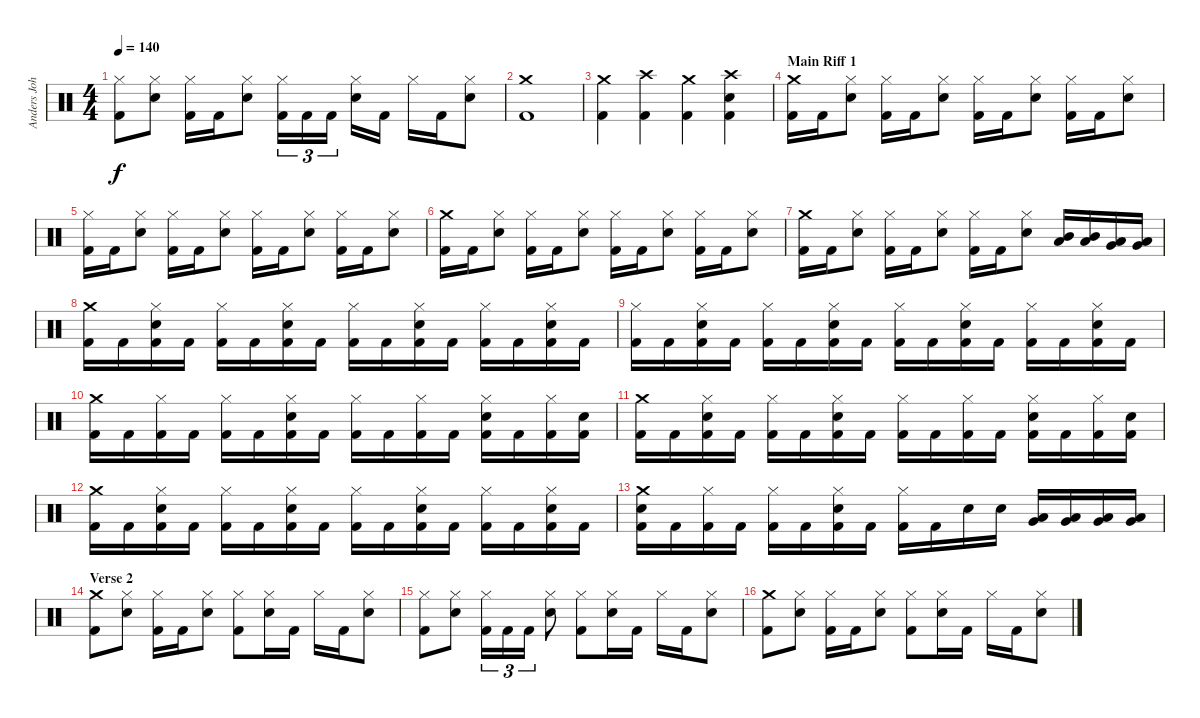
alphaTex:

\track ("Anders Johansson :: Drums" "Anders Joh") {instrument percussion}
\staff {score}
\articulation defaults
\ts (4 4)
\tempo 140
\clef neutral
\ks c
("Hi-Hat (closed)" "Kick (hit) 2").8{dy f} ("Hi-Hat (closed)" "Snare (hit) 2").8 ("Hi-Hat (closed)" "Kick (hit) 2").16 "Kick (hit) 2".16 ("Hi-Hat (closed)" "Snare (hit) 2").8 ("Hi-Hat (closed)" "Kick (hit) 2").16{tu (3 2)} "Kick (hit) 2".16{tu (3 2)} "Kick (hit) 2".16{tu (3 2)} ("Hi-Hat (closed)" "Snare (hit) 2").16 "Kick (hit) 2".16 "Hi-Hat (closed)".16 "Kick (hit) 2".16 ("Hi-Hat (closed)" "Snare (hit) 2").8 |
("Crash medium (hit)" "Kick (hit) 2").1 |
("Crash medium (hit)" "Kick (hit) 2").4 ("Crash high (hit)" "Kick (hit) 2").4 ("Crash medium (hit)" "Kick (hit) 2").4 ("Crash high (hit)" "Snare (hit) 2" "Kick (hit) 2").4 |
\section ("" "Main Riff 1")
("Crash medium (hit)" "Kick (hit) 2").16 "Kick (hit) 2".16 ("Hi-Hat (closed)" "Snare (hit) 2").8 ("Hi-Hat (closed)" "Kick (hit) 2").16 "Kick (hit) 2".16 ("Hi-Hat (closed)" "Snare (hit) 2").8 ("Hi-Hat (closed)" "Kick (hit) 2").16 "Kick (hit) 2".16 ("Hi-Hat (closed)" "Snare (hit) 2").8 ("Hi-Hat (closed)" "Kick (hit) 2").16 "Kick (hit) 2".16 ("Hi-Hat (closed)" "Snare (hit) 2").8 |
("Hi-Hat (closed)" "Kick (hit) 2").16 "Kick (hit) 2".16 ("Hi-Hat (closed)" "Snare (hit) 2").8 ("Hi-Hat (closed)" "Kick (hit) 2").16 "Kick (hit) 2".16 ("Hi-Hat (closed)" "Snare (hit) 2").8 ("Hi-Hat (closed)" "Kick (hit) 2").16 "Kick (hit) 2".16 ("Hi-Hat (closed)" "Snare (hit) 2").8 ("Hi-Hat (closed)" "Kick (hit) 2").16 "Kick (hit) 2".16 ("Hi-Hat (closed)" "Snare (hit) 2").8 |
("Crash medium (hit)" "Kick (hit) 2").16 "Kick (hit) 2".16 ("Hi-Hat (closed)" "Snare (hit) 2").8 ("Hi-Hat (closed)" "Kick (hit) 2").16 "Kick (hit) 2".16 ("Hi-Hat (closed)" "Snare (hit) 2").8 ("Hi-Hat (closed)" "Kick (hit) 2").16 "Kick (hit) 2".16 ("Hi-Hat (closed)" "Snare (hit) 2").8 ("Hi-Hat (closed)" "Kick (hit) 2").16 "Kick (hit) 2".16 ("Hi-Hat (closed)" "Snare (hit) 2").8 |
("Crash medium (hit)" "Kick (hit) 2").16 "Kick (hit) 2".16 ("Hi-Hat (closed)" "Snare (hit) 2").8 ("Hi-Hat (closed)" "Kick (hit) 2").16 "Kick (hit) 2".16 ("Hi-Hat (closed)" "Snare (hit) 2").8 ("Hi-Hat (closed)" "Kick (hit) 2").16 "Kick (hit) 2".16 ("Hi-Hat (closed)" "Snare (hit) 2").8 ("Mid Tom (hit)" "Low Tom (hit)").16 ("Mid Tom (hit)" "Low Tom (hit)").16 ("Low Tom (hit)" "Very Low Tom (hit)").16 ("Low Tom (hit)" "Very Low Tom (hit)").16 |
("Crash medium (hit)" "Kick (hit) 2").16 "Kick (hit) 2".16 ("Hi-Hat (closed)" "Snare (hit) 2" "Kick (hit) 2").16 "Kick (hit) 2".16 ("Hi-Hat (closed)" "Kick (hit) 2").16 "Kick (hit) 2".16 ("Hi-Hat (closed)" "Snare (hit) 2" "Kick (hit) 2").16 "Kick (hit) 2".16 ("Hi-Hat (closed)" "Kick (hit) 2").16 "Kick (hit) 2".16 ("Hi-Hat (closed)" "Snare (hit) 2" "Kick (hit) 2").16 "Kick (hit) 2".16 ("Hi-Hat (closed)" "Kick (hit) 2").16 "Kick (hit) 2".16 ("Hi-Hat (closed)" "Snare (hit) 2" "Kick (hit) 2").16 "Kick (hit) 2".16 |
("Hi-Hat (closed)" "Kick (hit) 2").16 "Kick (hit) 2".16 ("Hi-Hat (closed)" "Snare (hit) 2" "Kick (hit) 2").16 "Kick (hit) 2".16 ("Hi-Hat (closed)" "Kick (hit) 2").16 "Kick (hit) 2".16 ("Hi-Hat (closed)" "Snare (hit) 2" "Kick (hit) 2").16 "Kick (hit) 2".16 ("Hi-Hat (closed)" "Kick (hit) 2").16 "Kick (hit) 2".16 ("Hi-Hat (closed)" "Snare (hit) 2" "Kick (hit) 2").16 "Kick (hit) 2".16 ("Hi-Hat (closed)" "Kick (hit) 2").16 "Kick (hit) 2".16 ("Hi-Hat (closed)" "Snare (hit) 2" "Kick (hit) 2").16 "Kick (hit) 2".16 |
("Crash medium (hit)" "Kick (hit) 2").16 "Kick (hit) 2".16 ("Hi-Hat (closed)" "Kick (hit) 2").16 "Kick (hit) 2".16 ("Hi-Hat (closed)" "Kick (hit) 2").16 "Kick (hit) 2".16 ("Hi-Hat (closed)" "Snare (hit) 2" "Kick (hit) 2").16 "Kick (hit) 2".16 ("Hi-Hat (closed)" "Kick (hit) 2").16 "Kick (hit) 2".16 ("Hi-Hat (closed)" "Kick (hit) 2").16 "Kick (hit) 2".16 ("Hi-Hat (closed)" "Snare (hit) 2" "Kick (hit) 2").16 "Kick (hit) 2".16 ("Hi-Hat (closed)" "Kick (hit) 2").16 ("Snare (hit) 2" "Kick (hit) 2").16 |
("Crash medium (hit)" "Kick (hit) 2").16 "Kick (hit) 2".16 ("Hi-Hat (closed)" "Snare (hit) 2" "Kick (hit) 2").16 "Kick (hit) 2".16 ("Hi-Hat (closed)" "Kick (hit) 2").16 "Kick (hit) 2".16 ("Hi-Hat (closed)" "Snare (hit) 2" "Kick (hit) 2").16 "Kick (hit) 2".16 ("Hi-Hat (closed)" "Kick (hit) 2").16 "Kick (hit) 2".16 ("Hi-Hat (closed)" "Kick (hit) 2").16 "Kick (hit) 2".16 ("Hi-Hat (closed)" "Snare (hit) 2" "Kick (hit) 2").16 "Kick (hit) 2".16 ("Hi-Hat (closed)" "Kick (hit) 2").16 ("Snare (hit) 2" "Kick (hit) 2").16 |
("Crash medium (hit)" "Kick (hit) 2").16 "Kick (hit) 2".16 ("Hi-Hat (closed)" "Snare (hit) 2" "Kick (hit) 2").16 "Kick (hit) 2".16 ("Hi-Hat (closed)" "Kick (hit) 2").16 "Kick (hit) 2".16 ("Hi-Hat (closed)" "Snare (hit) 2" "Kick (hit) 2").16 "Kick (hit) 2".16 ("Hi-Hat (closed)" "Kick (hit) 2").16 "Kick (hit) 2".16 ("Hi-Hat (closed)" "Snare (hit) 2" "Kick (hit) 2").16 "Kick (hit) 2".16 ("Hi-Hat (closed)" "Kick (hit) 2").16 "Kick (hit) 2".16 ("Hi-Hat (closed)" "Snare (hit) 2" "Kick (hit) 2").16 "Kick (hit) 2".16 |
("Crash medium (hit)" "Snare (hit) 2" "Kick (hit) 2").16 "Kick (hit) 2".16 ("Hi-Hat (closed)" "Kick (hit) 2").16 "Kick (hit) 2".16 ("Hi-Hat (closed)" "Kick (hit) 2").16 "Kick (hit) 2".16 ("Hi-Hat (closed)" "Snare (hit) 2" "Kick (hit) 2").16 "Kick (hit) 2".16 ("Hi-Hat (closed)" "Kick (hit) 2").16 "Kick (hit) 2".16 "Snare (hit) 2".16 "Snare (hit) 2".16 ("Low Tom (hit)" "Very Low Tom (hit)").16 ("Low Tom (hit)" "Very Low Tom (hit)").16 ("Low Tom (hit)" "Very Low Tom (hit)").16 ("Low Tom (hit)" "Very Low Tom (hit)").16 |
\section ("" "Verse 2")
("Crash medium (hit)" "Kick (hit) 2").8 ("Hi-Hat (closed)" "Snare (hit) 2").8 ("Hi-Hat (closed)" "Kick (hit) 2").16 "Kick (hit) 2".16 ("Hi-Hat (closed)" "Snare (hit) 2").8 ("Hi-Hat (closed)" "Kick (hit) 2").8 ("Hi-Hat (closed)" "Snare (hit) 2").16 "Kick (hit) 2".16 "Hi-Hat (closed)".16 "Kick (hit) 2".16 ("Hi-Hat (closed)" "Snare (hit) 2").8 |
("Hi-Hat (closed)" "Kick (hit) 2").8 ("Hi-Hat (closed)" "Snare (hit) 2").8 ("Hi-Hat (closed)" "Kick (hit) 2").16{tu (3 2)} "Kick (hit) 2".16{tu (3 2)} "Kick (hit) 2".16{tu (3 2)} ("Hi-Hat (closed)" "Snare (hit) 2").8 ("Hi-Hat (closed)" "Kick (hit) 2").8 ("Hi-Hat (closed)" "Snare (hit) 2").16 "Kick (hit) 2".16 "Hi-Hat (closed)".16 "Kick (hit) 2".16 ("Hi-Hat (closed)" "Snare (hit) 2").8 |
("Crash medium (hit)" "Kick (hit) 2").8 ("Hi-Hat (closed)" "Snare (hit) 2").8 ("Hi-Hat (closed)" "Kick (hit) 2").16 "Kick (hit) 2".16 ("Hi-Hat (closed)" "Snare (hit) 2").8 ("Hi-Hat (closed)" "Kick (hit) 2").8 ("Hi-Hat (closed)" "Snare (hit) 2").16 "Kick (hit) 2".16 "Hi-Hat (closed)".16 "Kick (hit) 2".16 ("Hi-Hat (closed)" "Snare (hit) 2").8
